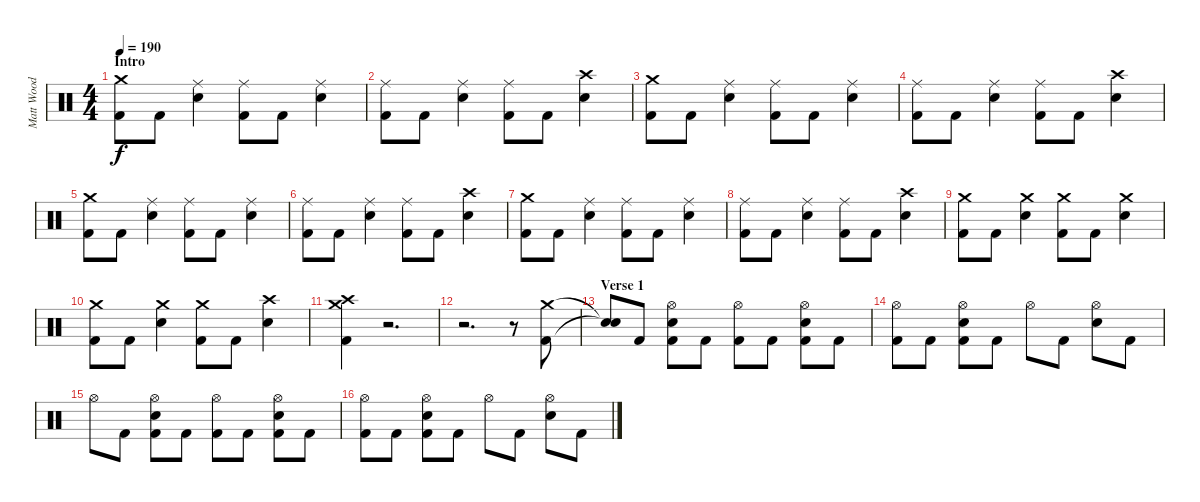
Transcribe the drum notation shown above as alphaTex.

\track ("Matt Wood" "Matt Wood") {instrument percussion}
\staff {score}
\articulation defaults
\ts (4 4)
\section ("" "Intro")
\tempo 190
\clef neutral
\ks c
("Crash medium (hit)" "Kick (hit) 2").8{dy f} "Kick (hit) 2".8 ("Ride (middle)" "Snare (hit) 2").4 ("Ride (middle)" "Kick (hit) 2").8 "Kick (hit) 2".8 ("Ride (middle)" "Snare (hit) 2").4 |
("Ride (middle)" "Kick (hit) 2").8 "Kick (hit) 2".8 ("Ride (middle)" "Snare (hit) 2").4 ("Ride (middle)" "Kick (hit) 2").8 "Kick (hit) 2".8 ("Crash high (hit)" "Snare (hit) 2").4 |
("Crash medium (hit)" "Kick (hit) 2").8 "Kick (hit) 2".8 ("Ride (middle)" "Snare (hit) 2").4 ("Ride (middle)" "Kick (hit) 2").8 "Kick (hit) 2".8 ("Ride (middle)" "Snare (hit) 2").4 |
("Ride (middle)" "Kick (hit) 2").8 "Kick (hit) 2".8 ("Ride (middle)" "Snare (hit) 2").4 ("Ride (middle)" "Kick (hit) 2").8 "Kick (hit) 2".8 ("Crash high (hit)" "Snare (hit) 2").4 |
("Crash medium (hit)" "Kick (hit) 2").8 "Kick (hit) 2".8 ("Ride (middle)" "Snare (hit) 2").4 ("Ride (middle)" "Kick (hit) 2").8 "Kick (hit) 2".8 ("Ride (middle)" "Snare (hit) 2").4 |
("Ride (middle)" "Kick (hit) 2").8 "Kick (hit) 2".8 ("Ride (middle)" "Snare (hit) 2").4 ("Ride (middle)" "Kick (hit) 2").8 "Kick (hit) 2".8 ("Crash high (hit)" "Snare (hit) 2").4 |
("Crash medium (hit)" "Kick (hit) 2").8 "Kick (hit) 2".8 ("Ride (middle)" "Snare (hit) 2").4 ("Ride (middle)" "Kick (hit) 2").8 "Kick (hit) 2".8 ("Ride (middle)" "Snare (hit) 2").4 |
("Ride (middle)" "Kick (hit) 2").8 "Kick (hit) 2".8 ("Ride (middle)" "Snare (hit) 2").4 ("Ride (middle)" "Kick (hit) 2").8 "Kick (hit) 2".8 ("Crash high (hit)" "Snare (hit) 2").4 |
("Crash medium (hit)" "Kick (hit) 2").8 "Kick (hit) 2".8 ("Crash medium (hit)" "Snare (hit) 2").4 ("Crash medium (hit)" "Kick (hit) 2").8 "Kick (hit) 2".8 ("Crash medium (hit)" "Snare (hit) 2").4 |
("Crash medium (hit)" "Kick (hit) 2").8 "Kick (hit) 2".8 ("Crash medium (hit)" "Snare (hit) 2").4 ("Crash medium (hit)" "Kick (hit) 2").8 "Kick (hit) 2".8 ("Crash high (hit)" "Snare (hit) 2").4 |
("Crash medium (hit)" "Crash high (hit)" "Kick (hit) 2").4 r.2{d} |
r.2{d} r.8 ("Crash medium (hit)" "Kick (hit) 2").8 |
\section ("" "Verse 1")
("Snare (hit)"{t} "Snare (hit)"{t}).8 "Kick (hit) 2".8 ("Hi-Hat (open)" "Snare (hit) 2" "Kick (hit) 2").8 "Kick (hit) 2".8 ("Hi-Hat (open)" "Kick (hit) 2").8 "Kick (hit) 2".8 ("Hi-Hat (open)" "Snare (hit) 2" "Kick (hit) 2").8 "Kick (hit) 2".8 |
("Hi-Hat (open)" "Kick (hit) 2").8 "Kick (hit) 2".8 ("Hi-Hat (open)" "Snare (hit) 2" "Kick (hit) 2").8 "Kick (hit) 2".8 "Hi-Hat (open)".8 "Kick (hit) 2".8 ("Hi-Hat (open)" "Snare (hit) 2").8 "Kick (hit) 2".8 |
"Hi-Hat (open)".8 "Kick (hit) 2".8 ("Hi-Hat (open)" "Snare (hit) 2" "Kick (hit) 2").8 "Kick (hit) 2".8 ("Hi-Hat (open)" "Kick (hit) 2").8 "Kick (hit) 2".8 ("Hi-Hat (open)" "Snare (hit) 2" "Kick (hit) 2").8 "Kick (hit) 2".8 |
("Hi-Hat (open)" "Kick (hit) 2").8 "Kick (hit) 2".8 ("Hi-Hat (open)" "Snare (hit) 2" "Kick (hit) 2").8 "Kick (hit) 2".8 "Hi-Hat (open)".8 "Kick (hit) 2".8 ("Hi-Hat (open)" "Snare (hit) 2").8 "Kick (hit) 2".8
